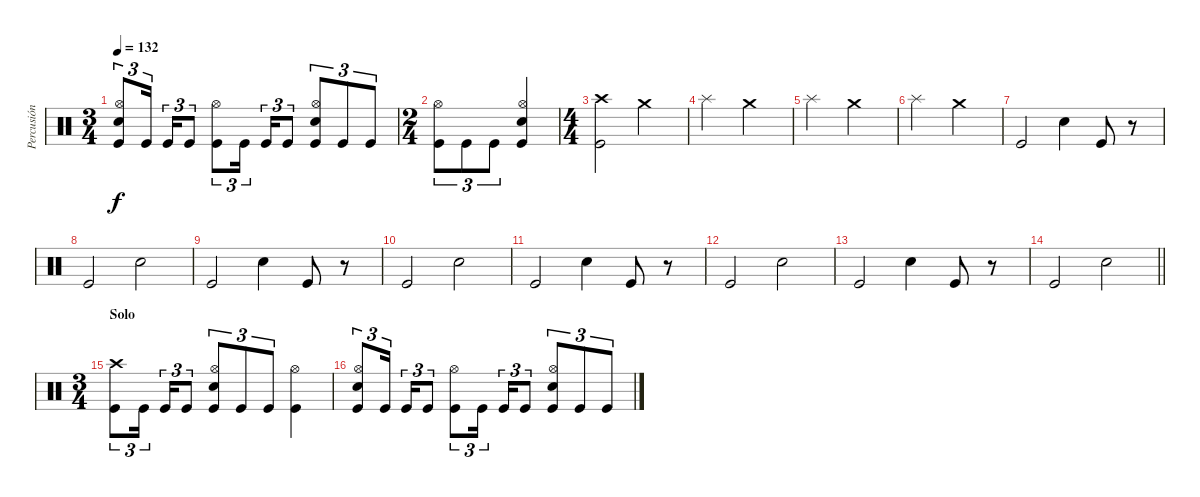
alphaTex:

\track ("Percusión" "Percusión") {instrument percussion}
\staff
\articulation defaults
\ts (3 4)
\tempo 132
\clef neutral
\ks c
("Kick (hit)" "Hi-Hat (open)" "Electric Snare (hit)").8{tu (3 2) dy f} "Kick (hit)".16{tu (3 2) beam splitsecondary} "Kick (hit)".16{tu (3 2)} "Kick (hit)".8{tu (3 2)} ("Kick (hit)" "Hi-Hat (open)").8{tu (3 2)} "Kick (hit)".16{tu (3 2) beam splitsecondary} "Kick (hit)".16{tu (3 2)} "Kick (hit)".8{tu (3 2)} ("Kick (hit)" "Hi-Hat (open)" "Electric Snare (hit)").8{tu (3 2)} "Kick (hit)".8{tu (3 2)} "Kick (hit)".8{tu (3 2)} |
\ts (2 4)
("Kick (hit)" "Hi-Hat (open)").8{tu (3 2)} "Kick (hit)".8{tu (3 2)} "Kick (hit)".8{tu (3 2)} ("Kick (hit)" "Hi-Hat (open)" "Electric Snare (hit)").4 |
\ts (4 4)
("Kick (hit)" "Crash high (hit)").2 "Crash medium (hit)".2 |
"Splash (hit)".2 "Crash medium (hit)".2 |
"Splash (hit)".2 "Crash medium (hit)".2 |
"Splash (hit)".2 "Crash medium (hit)".2 |
"Kick (hit)".2 "Electric Snare (hit)".4 "Kick (hit)".8 r.8 |
"Kick (hit)".2 "Electric Snare (hit)".2 |
"Kick (hit)".2 "Electric Snare (hit)".4 "Kick (hit)".8 r.8 |
"Kick (hit)".2 "Electric Snare (hit)".2 |
"Kick (hit)".2 "Electric Snare (hit)".4 "Kick (hit)".8 r.8 |
"Kick (hit)".2 "Electric Snare (hit)".2 |
"Kick (hit)".2 "Electric Snare (hit)".4 "Kick (hit)".8 r.8 |
\barLineRight lightlight "Kick (hit)".2 "Electric Snare (hit)".2
|
\ts (3 4)
\section ("" "Solo")
("Kick (hit)" "Crash high (hit)").8{tu (3 2)} "Kick (hit)".16{tu (3 2) beam splitsecondary} "Kick (hit)".16{tu (3 2)} "Kick (hit)".8{tu (3 2)} ("Kick (hit)" "Hi-Hat (open)" "Electric Snare (hit)").8{tu (3 2)} "Kick (hit)".8{tu (3 2)} "Kick (hit)".8{tu (3 2)} ("Kick (hit)" "Hi-Hat (open)").4 |
("Kick (hit)" "Hi-Hat (open)" "Electric Snare (hit)").8{tu (3 2)} "Kick (hit)".16{tu (3 2) beam splitsecondary} "Kick (hit)".16{tu (3 2)} "Kick (hit)".8{tu (3 2)} ("Kick (hit)" "Hi-Hat (open)").8{tu (3 2)} "Kick (hit)".16{tu (3 2) beam splitsecondary} "Kick (hit)".16{tu (3 2)} "Kick (hit)".8{tu (3 2)} ("Kick (hit)" "Hi-Hat (open)" "Electric Snare (hit)").8{tu (3 2)} "Kick (hit)".8{tu (3 2)} "Kick (hit)".8{tu (3 2)}
